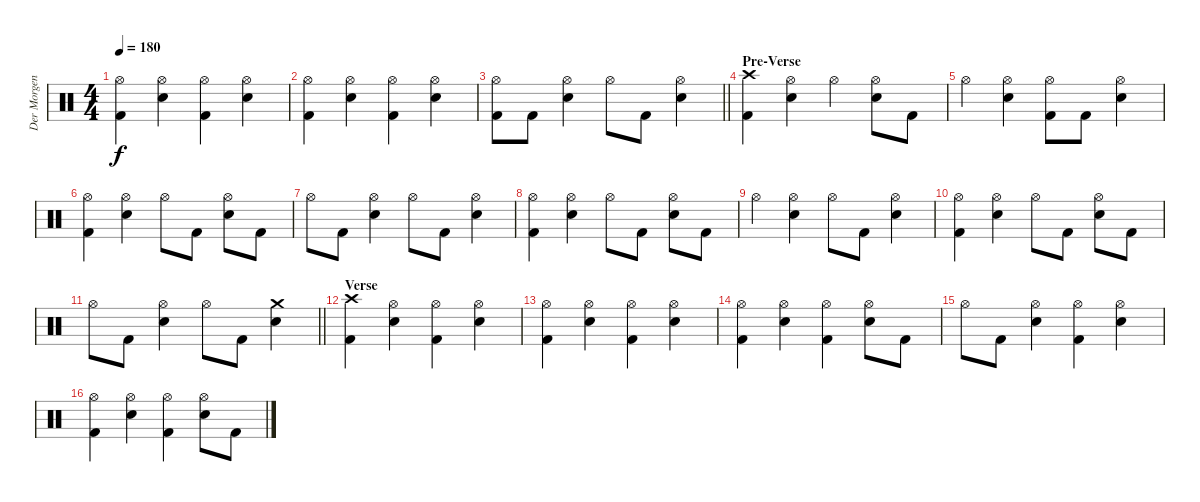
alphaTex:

\track ("Der Morgenstern" "Der Morgen") {instrument percussion}
\staff {score}
\articulation defaults
\ts (4 4)
\tempo 180
\clef neutral
\ks c
("Hi-Hat (open)" "Kick (hit) 2").4{dy f} ("Hi-Hat (open)" "Electric Snare (hit)").4 ("Hi-Hat (open)" "Kick (hit) 2").4 ("Hi-Hat (open)" "Electric Snare (hit)").4 |
("Hi-Hat (open)" "Kick (hit) 2").4 ("Hi-Hat (open)" "Electric Snare (hit)").4 ("Hi-Hat (open)" "Kick (hit) 2").4 ("Hi-Hat (open)" "Electric Snare (hit)").4 |
\barLineRight lightlight
("Hi-Hat (open)" "Kick (hit) 2").8 "Kick (hit) 2".8 ("Hi-Hat (open)" "Electric Snare (hit)").4 "Hi-Hat (open)".8 "Kick (hit) 2".8 ("Hi-Hat (open)" "Electric Snare (hit)").4 |
\section ("" "Pre-Verse")
("Crash high (hit)" "Kick (hit) 2").4 ("Hi-Hat (open)" "Electric Snare (hit)").4 "Hi-Hat (open)".4 ("Hi-Hat (open)" "Electric Snare (hit)").8 "Kick (hit) 2".8 |
"Hi-Hat (open)".4 ("Hi-Hat (open)" "Electric Snare (hit)").4 ("Hi-Hat (open)" "Kick (hit) 2").8 "Kick (hit) 2".8 ("Hi-Hat (open)" "Electric Snare (hit)").4 |
("Hi-Hat (open)" "Kick (hit) 2").4 ("Hi-Hat (open)" "Electric Snare (hit)").4 "Hi-Hat (open)".8 "Kick (hit) 2".8 ("Hi-Hat (open)" "Electric Snare (hit)").8 "Kick (hit) 2".8 |
"Hi-Hat (open)".8 "Kick (hit) 2".8 ("Hi-Hat (open)" "Electric Snare (hit)").4 "Hi-Hat (open)".8 "Kick (hit) 2".8 ("Hi-Hat (open)" "Electric Snare (hit)").4 |
("Hi-Hat (open)" "Kick (hit) 2").4 ("Hi-Hat (open)" "Electric Snare (hit)").4 "Hi-Hat (open)".8 "Kick (hit) 2".8 ("Hi-Hat (open)" "Electric Snare (hit)").8 "Kick (hit) 2".8 |
"Hi-Hat (open)".4 ("Hi-Hat (open)" "Electric Snare (hit)").4 "Hi-Hat (open)".8 "Kick (hit) 2".8 ("Hi-Hat (open)" "Electric Snare (hit)").4 |
("Hi-Hat (open)" "Kick (hit) 2").4 ("Hi-Hat (open)" "Electric Snare (hit)").4 "Hi-Hat (open)".8 "Kick (hit) 2".8 ("Hi-Hat (open)" "Electric Snare (hit)").8 "Kick (hit) 2".8 |
\barLineRight lightlight "Hi-Hat (open)".8 "Kick (hit) 2".8
("Hi-Hat (open)" "Electric Snare (hit)").4 "Hi-Hat (open)".8 "Kick (hit) 2".8 ("Crash medium (hit)" "Electric Snare (hit)").4 |
\section ("" "Verse")
("Crash high (hit)" "Kick (hit) 2").4 ("Hi-Hat (open)" "Electric Snare (hit)").4 ("Hi-Hat (open)" "Kick (hit) 2").4 ("Hi-Hat (open)" "Electric Snare (hit)").4 |
("Hi-Hat (open)" "Kick (hit) 2").4 ("Hi-Hat (open)" "Electric Snare (hit)").4 ("Hi-Hat (open)" "Kick (hit) 2").4 ("Hi-Hat (open)" "Electric Snare (hit)").4 |
("Hi-Hat (open)" "Kick (hit) 2").4 ("Hi-Hat (open)" "Electric Snare (hit)").4 ("Hi-Hat (open)" "Kick (hit) 2").4 ("Hi-Hat (open)" "Electric Snare (hit)").8 "Kick (hit) 2".8 |
"Hi-Hat (open)".8 "Kick (hit) 2".8 ("Hi-Hat (open)" "Electric Snare (hit)").4 ("Hi-Hat (open)" "Kick (hit) 2").4 ("Hi-Hat (open)" "Electric Snare (hit)").4 |
("Hi-Hat (open)" "Kick (hit) 2").4 ("Hi-Hat (open)" "Electric Snare (hit)").4 ("Hi-Hat (open)" "Kick (hit) 2").4 ("Hi-Hat (open)" "Electric Snare (hit)").8 "Kick (hit) 2".8
